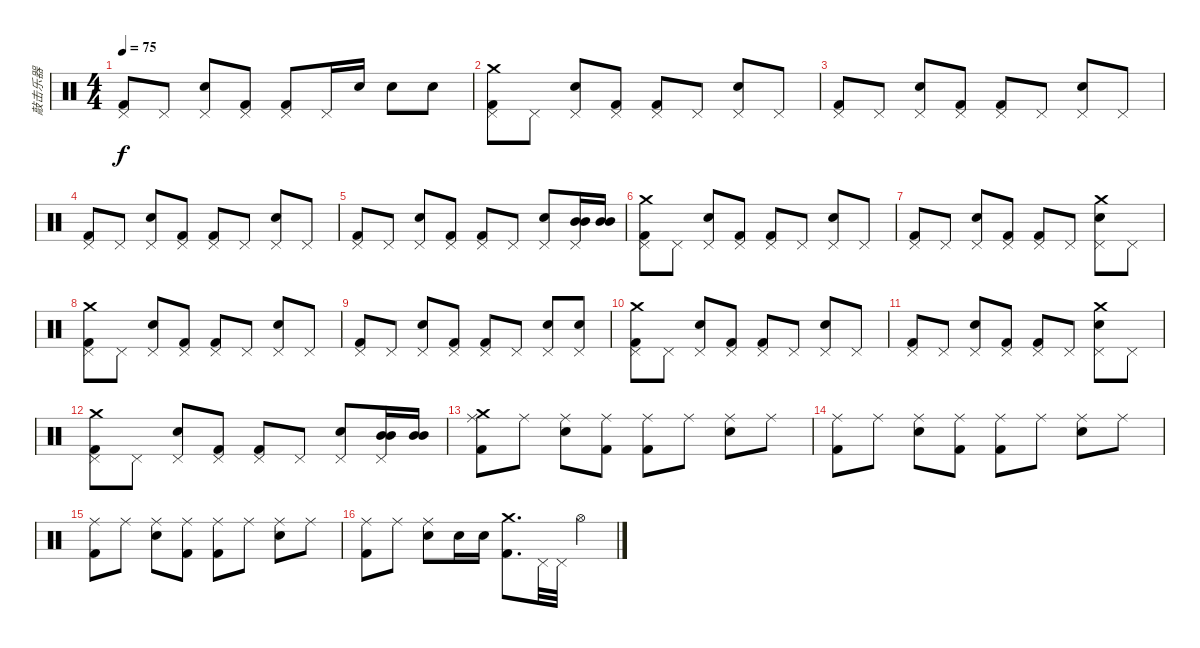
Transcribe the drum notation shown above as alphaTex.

\track ("敲击乐器" "敲击乐器") {instrument percussion}
\staff {score}
\articulation defaults
\ts (4 4)
\tempo 75
\clef neutral
\ks c
("Pedal Hi-Hat (hit)" "Kick (hit) 2").8{dy f} "Pedal Hi-Hat (hit)".8 ("Pedal Hi-Hat (hit)" "Electric Snare (hit)").8 ("Pedal Hi-Hat (hit)" "Kick (hit) 2").8 ("Pedal Hi-Hat (hit)" "Kick (hit) 2").8 "Pedal Hi-Hat (hit)".16 "Electric Snare (hit)".16 "Electric Snare (hit)".8 "Electric Snare (hit)".8 |
("Pedal Hi-Hat (hit)" "Kick (hit) 2" "Crash medium (hit)").8 "Pedal Hi-Hat (hit)".8 ("Pedal Hi-Hat (hit)" "Electric Snare (hit)").8 ("Pedal Hi-Hat (hit)" "Kick (hit) 2").8 ("Pedal Hi-Hat (hit)" "Kick (hit) 2").8 "Pedal Hi-Hat (hit)".8 ("Pedal Hi-Hat (hit)" "Electric Snare (hit)").8 "Pedal Hi-Hat (hit)".8 |
("Pedal Hi-Hat (hit)" "Kick (hit) 2").8 "Pedal Hi-Hat (hit)".8 ("Pedal Hi-Hat (hit)" "Electric Snare (hit)").8 ("Pedal Hi-Hat (hit)" "Kick (hit) 2").8 ("Pedal Hi-Hat (hit)" "Kick (hit) 2").8 "Pedal Hi-Hat (hit)".8 ("Pedal Hi-Hat (hit)" "Electric Snare (hit)").8 "Pedal Hi-Hat (hit)".8 |
("Pedal Hi-Hat (hit)" "Kick (hit) 2").8 "Pedal Hi-Hat (hit)".8 ("Pedal Hi-Hat (hit)" "Electric Snare (hit)").8 ("Pedal Hi-Hat (hit)" "Kick (hit) 2").8 ("Pedal Hi-Hat (hit)" "Kick (hit) 2").8 "Pedal Hi-Hat (hit)".8 ("Pedal Hi-Hat (hit)" "Electric Snare (hit)").8 "Pedal Hi-Hat (hit)".8 |
("Pedal Hi-Hat (hit)" "Kick (hit) 2").8 "Pedal Hi-Hat (hit)".8 ("Pedal Hi-Hat (hit)" "Electric Snare (hit)").8 ("Pedal Hi-Hat (hit)" "Kick (hit) 2").8 ("Pedal Hi-Hat (hit)" "Kick (hit) 2").8 "Pedal Hi-Hat (hit)".8 ("Pedal Hi-Hat (hit)" "Electric Snare (hit)").8 ("Pedal Hi-Hat (hit)" "Mid Tom (hit)" "Mid Tom (hit)").16 ("Mid Tom (hit)" "Mid Tom (hit)").16 |
("Pedal Hi-Hat (hit)" "Kick (hit) 2" "Crash medium (hit)").8 "Pedal Hi-Hat (hit)".8 ("Pedal Hi-Hat (hit)" "Electric Snare (hit)").8 ("Pedal Hi-Hat (hit)" "Kick (hit) 2").8 ("Pedal Hi-Hat (hit)" "Kick (hit) 2").8 "Pedal Hi-Hat (hit)".8 ("Pedal Hi-Hat (hit)" "Electric Snare (hit)").8 "Pedal Hi-Hat (hit)".8 |
("Pedal Hi-Hat (hit)" "Kick (hit) 2").8 "Pedal Hi-Hat (hit)".8 ("Pedal Hi-Hat (hit)" "Electric Snare (hit)").8 ("Pedal Hi-Hat (hit)" "Kick (hit) 2").8 ("Pedal Hi-Hat (hit)" "Kick (hit) 2").8 "Pedal Hi-Hat (hit)".8 ("Pedal Hi-Hat (hit)" "Electric Snare (hit)" "Crash medium (hit)").8 "Pedal Hi-Hat (hit)".8 |
("Pedal Hi-Hat (hit)" "Kick (hit) 2" "Crash medium (hit)").8 "Pedal Hi-Hat (hit)".8 ("Pedal Hi-Hat (hit)" "Electric Snare (hit)").8 ("Pedal Hi-Hat (hit)" "Kick (hit) 2").8 ("Pedal Hi-Hat (hit)" "Kick (hit) 2").8 "Pedal Hi-Hat (hit)".8 ("Pedal Hi-Hat (hit)" "Electric Snare (hit)").8 "Pedal Hi-Hat (hit)".8 |
("Pedal Hi-Hat (hit)" "Kick (hit) 2").8 "Pedal Hi-Hat (hit)".8 ("Pedal Hi-Hat (hit)" "Electric Snare (hit)").8 ("Pedal Hi-Hat (hit)" "Kick (hit) 2").8 ("Pedal Hi-Hat (hit)" "Kick (hit) 2").8 "Pedal Hi-Hat (hit)".8 ("Pedal Hi-Hat (hit)" "Electric Snare (hit)").8 ("Pedal Hi-Hat (hit)" "Electric Snare (hit)").8 |
("Pedal Hi-Hat (hit)" "Kick (hit) 2" "Crash medium (hit)").8 "Pedal Hi-Hat (hit)".8 ("Pedal Hi-Hat (hit)" "Electric Snare (hit)").8 ("Pedal Hi-Hat (hit)" "Kick (hit) 2").8 ("Pedal Hi-Hat (hit)" "Kick (hit) 2").8 "Pedal Hi-Hat (hit)".8 ("Pedal Hi-Hat (hit)" "Electric Snare (hit)").8 "Pedal Hi-Hat (hit)".8 |
("Pedal Hi-Hat (hit)" "Kick (hit) 2").8 "Pedal Hi-Hat (hit)".8 ("Pedal Hi-Hat (hit)" "Electric Snare (hit)").8 ("Pedal Hi-Hat (hit)" "Kick (hit) 2").8 ("Pedal Hi-Hat (hit)" "Kick (hit) 2").8 "Pedal Hi-Hat (hit)".8 ("Pedal Hi-Hat (hit)" "Electric Snare (hit)" "Crash medium (hit)").8 "Pedal Hi-Hat (hit)".8 |
("Pedal Hi-Hat (hit)" "Kick (hit) 2" "Crash medium (hit)").8 "Pedal Hi-Hat (hit)".8 ("Pedal Hi-Hat (hit)" "Electric Snare (hit)").8 ("Pedal Hi-Hat (hit)" "Kick (hit) 2").8 ("Pedal Hi-Hat (hit)" "Kick (hit) 2").8 "Pedal Hi-Hat (hit)".8 ("Pedal Hi-Hat (hit)" "Electric Snare (hit)").8 ("Pedal Hi-Hat (hit)" "Mid Tom (hit)" "Mid Tom (hit)").16 ("Mid Tom (hit)" "Mid Tom (hit)").16 |
("Ride (middle)" "Kick (hit) 2" "Crash medium (hit)").8 "Ride (middle)".8 ("Ride (middle)" "Electric Snare (hit)").8 ("Ride (middle)" "Kick (hit) 2").8 ("Ride (middle)" "Kick (hit) 2").8 "Ride (middle)".8 ("Ride (middle)" "Electric Snare (hit)").8 "Ride (middle)".8 |
("Ride (middle)" "Kick (hit) 2").8 "Ride (middle)".8 ("Ride (middle)" "Electric Snare (hit)").8 ("Ride (middle)" "Kick (hit) 2").8 ("Ride (middle)" "Kick (hit) 2").8 "Ride (middle)".8 ("Ride (middle)" "Electric Snare (hit)").8 "Ride (middle)".8 |
("Ride (middle)" "Kick (hit) 2").8 "Ride (middle)".8 ("Ride (middle)" "Electric Snare (hit)").8 ("Ride (middle)" "Kick (hit) 2").8 ("Ride (middle)" "Kick (hit) 2").8 "Ride (middle)".8 ("Ride (middle)" "Electric Snare (hit)").8 "Ride (middle)".8 |
("Ride (middle)" "Kick (hit) 2").8 "Ride (middle)".8 ("Ride (middle)" "Electric Snare (hit)").8 "Electric Snare (hit)".16 "Electric Snare (hit)".16 ("Kick (hit) 2" "Crash medium (hit)").8{d} "Pedal Hi-Hat (hit)".32 "Pedal Hi-Hat (hit)".32 "Hi-Hat (open)".4
